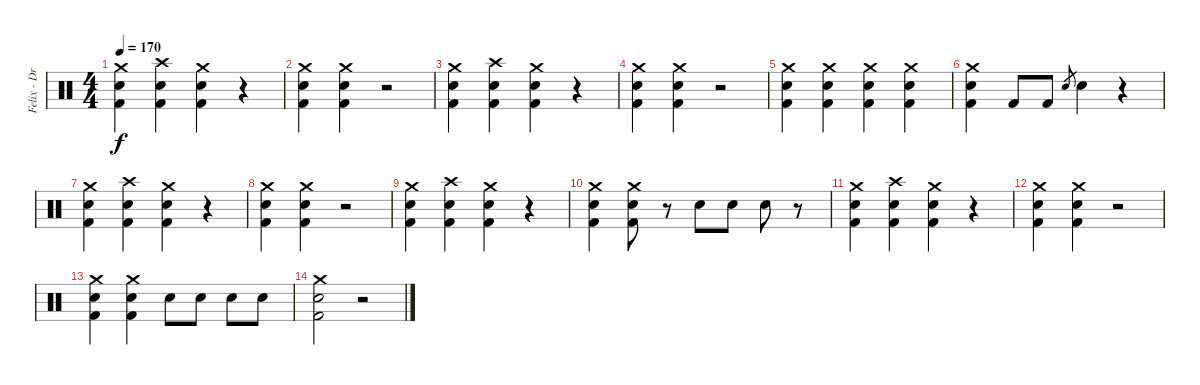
\track ("Felix - Drums" "Felix - Dr") {instrument percussion}
\staff {score}
\articulation defaults
\ts (4 4)
\tempo 170
\clef neutral
\ks c
("Crash medium (hit)" "Electric Snare (hit)" "Kick (hit) 2").4{dy f} ("Crash high (hit)" "Electric Snare (hit)" "Kick (hit) 2").4 ("Crash medium (hit)" "Electric Snare (hit)" "Kick (hit) 2").4 r.4 |
("Crash medium (hit)" "Electric Snare (hit)" "Kick (hit) 2").4 ("Crash medium (hit)" "Electric Snare (hit)" "Kick (hit) 2").4 r.2 |
("Crash medium (hit)" "Electric Snare (hit)" "Kick (hit) 2").4 ("Crash high (hit)" "Electric Snare (hit)" "Kick (hit) 2").4 ("Crash medium (hit)" "Electric Snare (hit)" "Kick (hit) 2").4 r.4 |
("Crash medium (hit)" "Electric Snare (hit)" "Kick (hit) 2").4 ("Crash medium (hit)" "Electric Snare (hit)" "Kick (hit) 2").4 r.2 |
("Crash medium (hit)" "Electric Snare (hit)" "Kick (hit) 2").4 ("Crash medium (hit)" "Electric Snare (hit)" "Kick (hit) 2").4 ("Crash medium (hit)" "Electric Snare (hit)" "Kick (hit) 2").4 ("Crash medium (hit)" "Electric Snare (hit)" "Kick (hit) 2").4 |
("Crash medium (hit)" "Electric Snare (hit)" "Kick (hit) 2").4 "Kick (hit) 2".8 "Kick (hit) 2".8 "Electric Snare (hit)".8{gr} "Electric Snare (hit)".4 r.4 |
("Crash medium (hit)" "Electric Snare (hit)" "Kick (hit) 2").4 ("Crash high (hit)" "Electric Snare (hit)" "Kick (hit) 2").4 ("Crash medium (hit)" "Electric Snare (hit)" "Kick (hit) 2").4 r.4 |
("Crash medium (hit)" "Electric Snare (hit)" "Kick (hit) 2").4 ("Crash medium (hit)" "Electric Snare (hit)" "Kick (hit) 2").4 r.2 |
("Crash medium (hit)" "Electric Snare (hit)" "Kick (hit) 2").4 ("Crash high (hit)" "Electric Snare (hit)" "Kick (hit) 2").4 ("Crash medium (hit)" "Electric Snare (hit)" "Kick (hit) 2").4 r.4 |
("Crash medium (hit)" "Electric Snare (hit)" "Kick (hit) 2").4 ("Crash medium (hit)" "Electric Snare (hit)" "Kick (hit) 2").8 r.8 "Electric Snare (hit)".8 "Electric Snare (hit)".8 "Electric Snare (hit)".8 r.8 |
("Crash medium (hit)" "Electric Snare (hit)" "Kick (hit) 2").4 ("Crash high (hit)" "Electric Snare (hit)" "Kick (hit) 2").4 ("Crash medium (hit)" "Electric Snare (hit)" "Kick (hit) 2").4 r.4 |
("Crash medium (hit)" "Electric Snare (hit)" "Kick (hit) 2").4 ("Crash medium (hit)" "Electric Snare (hit)" "Kick (hit) 2").4 r.2 |
("Crash medium (hit)" "Electric Snare (hit)" "Kick (hit) 2").4 ("Crash medium (hit)" "Electric Snare (hit)" "Kick (hit) 2").4 "Electric Snare (hit)".8 "Electric Snare (hit)".8 "Electric Snare (hit)".8 "Electric Snare (hit)".8 |
("Crash medium (hit)" "Electric Snare (hit)" "Kick (hit) 2").2 r.2
